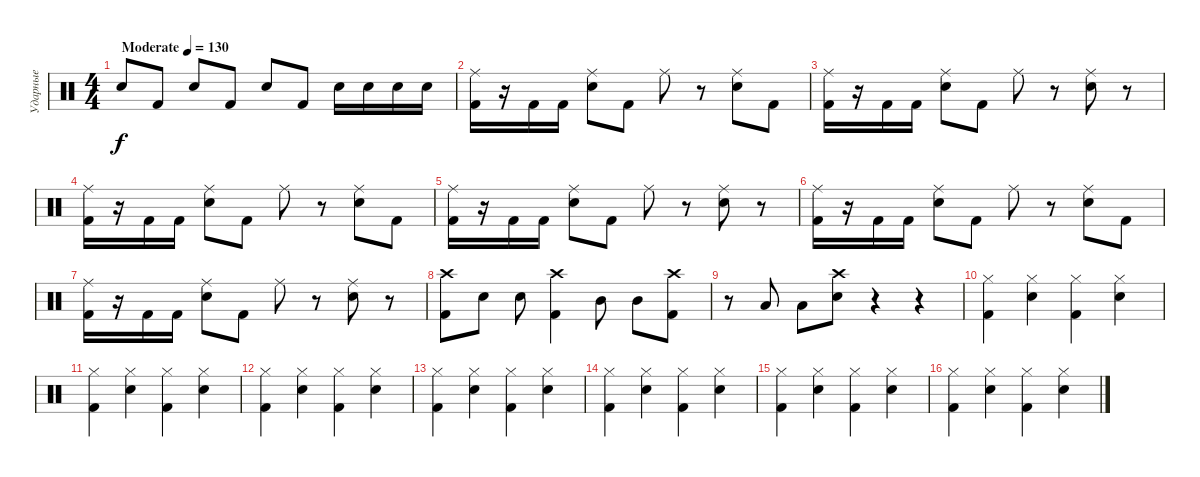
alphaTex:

\track ("Ударные" "Ударные") {instrument percussion}
\staff {score}
\articulation defaults
\ts (4 4)
\tempo (130 "Moderate")
\clef neutral
\ks c "Electric Snare (hit)".8{dy f} "Kick (hit) 2".8 "Electric Snare (hit)".8 "Kick (hit) 2".8 "Electric Snare (hit)".8 "Kick (hit) 2".8 "Electric Snare (hit)".16 "Electric Snare (hit)".16 "Electric Snare (hit)".16 "Electric Snare (hit)".16
|
("Kick (hit) 2" "Ride (middle)").16 r.16 "Kick (hit) 2".16 "Kick (hit) 2".16 ("Electric Snare (hit)" "Ride (middle)").8 "Kick (hit) 2".8 "Ride (middle)".8 r.8 ("Electric Snare (hit)" "Ride (middle)").8 "Kick (hit) 2".8 |
("Kick (hit) 2" "Ride (middle)").16 r.16 "Kick (hit) 2".16 "Kick (hit) 2".16 ("Electric Snare (hit)" "Ride (middle)").8 "Kick (hit) 2".8 "Ride (middle)".8 r.8 ("Electric Snare (hit)" "Ride (middle)").8 r.8 |
("Kick (hit) 2" "Ride (middle)").16 r.16 "Kick (hit) 2".16 "Kick (hit) 2".16 ("Electric Snare (hit)" "Ride (middle)").8 "Kick (hit) 2".8 "Ride (middle)".8 r.8 ("Electric Snare (hit)" "Ride (middle)").8 "Kick (hit) 2".8 |
("Kick (hit) 2" "Ride (middle)").16 r.16 "Kick (hit) 2".16 "Kick (hit) 2".16 ("Electric Snare (hit)" "Ride (middle)").8 "Kick (hit) 2".8 "Ride (middle)".8 r.8 ("Electric Snare (hit)" "Ride (middle)").8 r.8 |
("Kick (hit) 2" "Ride (middle)").16 r.16 "Kick (hit) 2".16 "Kick (hit) 2".16 ("Electric Snare (hit)" "Ride (middle)").8 "Kick (hit) 2".8 "Ride (middle)".8 r.8 ("Electric Snare (hit)" "Ride (middle)").8 "Kick (hit) 2".8 |
("Kick (hit) 2" "Ride (middle)").16 r.16 "Kick (hit) 2".16 "Kick (hit) 2".16 ("Electric Snare (hit)" "Ride (middle)").8 "Kick (hit) 2".8 "Ride (middle)".8 r.8 ("Electric Snare (hit)" "Ride (middle)").8 r.8 |
("Kick (hit) 2" "Crash high (hit)").8 "Electric Snare (hit)".8 "Electric Snare (hit)".8 ("Kick (hit) 2" "Crash high (hit)").4 "Mid Tom (hit)".8 "Mid Tom (hit)".8 ("Kick (hit) 2" "Crash high (hit)").8 |
r.8 "Low Tom (hit)".8 "Low Tom (hit)".8 ("Crash high (hit)" "Electric Snare (hit)").8 r.4 r.4 |
("Kick (hit) 2" "Hi-Hat (closed)").4 ("Electric Snare (hit)" "Hi-Hat (closed)").4 ("Kick (hit) 2" "Hi-Hat (closed)").4 ("Electric Snare (hit)" "Hi-Hat (closed)").4 |
("Kick (hit) 2" "Hi-Hat (closed)").4 ("Electric Snare (hit)" "Hi-Hat (closed)").4 ("Kick (hit) 2" "Hi-Hat (closed)").4 ("Electric Snare (hit)" "Hi-Hat (closed)").4 |
("Kick (hit) 2" "Hi-Hat (closed)").4 ("Electric Snare (hit)" "Hi-Hat (closed)").4 ("Kick (hit) 2" "Hi-Hat (closed)").4 ("Electric Snare (hit)" "Hi-Hat (closed)").4 |
("Kick (hit) 2" "Hi-Hat (closed)").4 ("Electric Snare (hit)" "Hi-Hat (closed)").4 ("Kick (hit) 2" "Hi-Hat (closed)").4 ("Electric Snare (hit)" "Hi-Hat (closed)").4 |
("Kick (hit) 2" "Hi-Hat (closed)").4 ("Electric Snare (hit)" "Hi-Hat (closed)").4 ("Kick (hit) 2" "Hi-Hat (closed)").4 ("Electric Snare (hit)" "Hi-Hat (closed)").4 |
("Kick (hit) 2" "Hi-Hat (closed)").4 ("Electric Snare (hit)" "Hi-Hat (closed)").4 ("Kick (hit) 2" "Hi-Hat (closed)").4 ("Electric Snare (hit)" "Hi-Hat (closed)").4 |
("Kick (hit) 2" "Hi-Hat (closed)").4 ("Electric Snare (hit)" "Hi-Hat (closed)").4 ("Kick (hit) 2" "Hi-Hat (closed)").4 ("Electric Snare (hit)" "Hi-Hat (closed)").4
